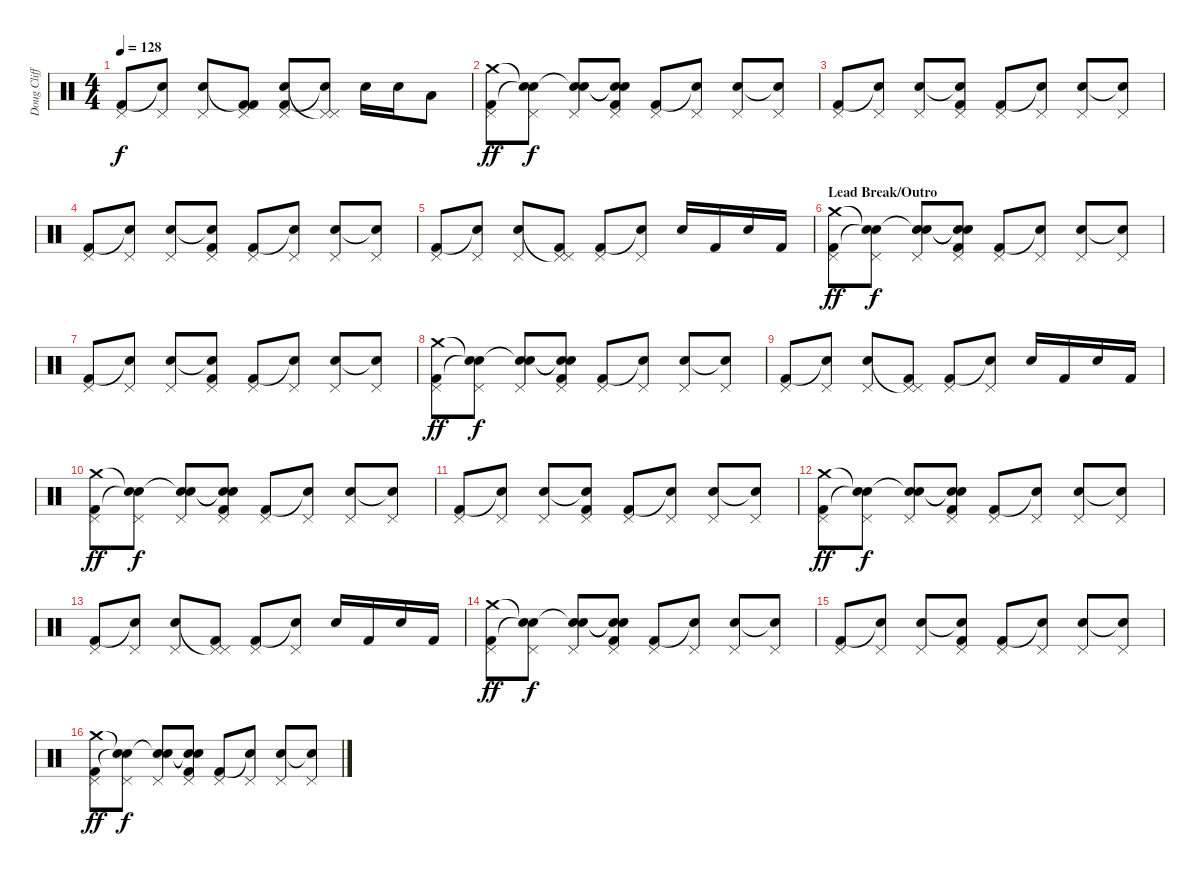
\track ("Doug Clifford" "Doug Cliff") {instrument percussion}
\staff {score}
\articulation defaults
\ts (4 4)
\tempo 128
\clef neutral
\ks c
("Pedal Hi-Hat (hit)" "Kick (hit) 2").8{dy f} ("Pedal Hi-Hat (hit)" "Snare (hit)"{t}).8 ("Pedal Hi-Hat (hit)" "Snare (hit) 2").8 ("Pedal Hi-Hat (hit)" "Kick (hit) 2"{t} "Kick (hit) 2").8 ("Pedal Hi-Hat (hit)" "Snare (hit) 2" "Kick (hit) 2").8 ("Pedal Hi-Hat (hit)" "Pedal Hi-Hat (hit)"{t} "Snare (hit)"{t}).8 "Snare (hit) 2".16 "Snare (hit) 2".16 "Low Tom (hit)".8 |
("Crash medium (hit)" "Pedal Hi-Hat (hit)" "Kick (hit) 2").8{dy ff} ("Snare (hit)"{t} "Pedal Hi-Hat (hit)" "Snare (hit)"{t}).8{dy f} ("Snare (hit)"{t} "Pedal Hi-Hat (hit)" "Snare (hit) 2").8 ("Snare (hit)"{t} "Pedal Hi-Hat (hit)" "Snare (hit)"{t} "Kick (hit) 2").8 ("Pedal Hi-Hat (hit)" "Kick (hit) 2").8 ("Pedal Hi-Hat (hit)" "Snare (hit)"{t}).8 ("Pedal Hi-Hat (hit)" "Snare (hit) 2").8 ("Pedal Hi-Hat (hit)" "Snare (hit)"{t}).8 |
("Pedal Hi-Hat (hit)" "Kick (hit) 2").8 ("Pedal Hi-Hat (hit)" "Snare (hit)"{t}).8 ("Pedal Hi-Hat (hit)" "Snare (hit) 2").8 ("Pedal Hi-Hat (hit)" "Snare (hit)"{t} "Kick (hit) 2").8 ("Pedal Hi-Hat (hit)" "Kick (hit) 2").8 ("Pedal Hi-Hat (hit)" "Snare (hit)"{t}).8 ("Pedal Hi-Hat (hit)" "Snare (hit) 2").8 ("Pedal Hi-Hat (hit)" "Snare (hit)"{t}).8 |
("Pedal Hi-Hat (hit)" "Kick (hit) 2").8 ("Pedal Hi-Hat (hit)" "Snare (hit)"{t}).8 ("Pedal Hi-Hat (hit)" "Snare (hit) 2").8 ("Pedal Hi-Hat (hit)" "Snare (hit)"{t} "Kick (hit) 2").8 ("Pedal Hi-Hat (hit)" "Kick (hit) 2").8 ("Pedal Hi-Hat (hit)" "Snare (hit)"{t}).8 ("Pedal Hi-Hat (hit)" "Snare (hit) 2").8 ("Pedal Hi-Hat (hit)" "Snare (hit)"{t}).8 |
("Pedal Hi-Hat (hit)" "Kick (hit) 2").8 ("Pedal Hi-Hat (hit)" "Snare (hit)"{t}).8 ("Pedal Hi-Hat (hit)" "Snare (hit) 2").8 ("Pedal Hi-Hat (hit)" "Pedal Hi-Hat (hit)"{t} "Kick (hit) 2").8 ("Pedal Hi-Hat (hit)" "Kick (hit) 2").8 ("Pedal Hi-Hat (hit)" "Snare (hit)"{t}).8 "Snare (hit) 2".16 "Kick (hit) 2".16 "Snare (hit) 2".16 "Kick (hit) 2".16 |
\section ("" "Lead Break/Outro")
("Crash medium (hit)" "Pedal Hi-Hat (hit)" "Kick (hit) 2").8{dy ff} ("Snare (hit)"{t} "Pedal Hi-Hat (hit)" "Snare (hit)"{t}).8{dy f} ("Snare (hit)"{t} "Pedal Hi-Hat (hit)" "Snare (hit) 2").8 ("Snare (hit)"{t} "Pedal Hi-Hat (hit)" "Snare (hit)"{t} "Kick (hit) 2").8 ("Pedal Hi-Hat (hit)" "Kick (hit) 2").8 ("Pedal Hi-Hat (hit)" "Snare (hit)"{t}).8 ("Pedal Hi-Hat (hit)" "Snare (hit) 2").8 ("Pedal Hi-Hat (hit)" "Snare (hit)"{t}).8 |
("Pedal Hi-Hat (hit)" "Kick (hit) 2").8 ("Pedal Hi-Hat (hit)" "Snare (hit)"{t}).8 ("Pedal Hi-Hat (hit)" "Snare (hit) 2").8 ("Pedal Hi-Hat (hit)" "Snare (hit)"{t} "Kick (hit) 2").8 ("Pedal Hi-Hat (hit)" "Kick (hit) 2").8 ("Pedal Hi-Hat (hit)" "Snare (hit)"{t}).8 ("Pedal Hi-Hat (hit)" "Snare (hit) 2").8 ("Pedal Hi-Hat (hit)" "Snare (hit)"{t}).8 |
("Crash medium (hit)" "Pedal Hi-Hat (hit)" "Kick (hit) 2").8{dy ff} ("Snare (hit)"{t} "Pedal Hi-Hat (hit)" "Snare (hit)"{t}).8{dy f} ("Snare (hit)"{t} "Pedal Hi-Hat (hit)" "Snare (hit) 2").8 ("Snare (hit)"{t} "Pedal Hi-Hat (hit)" "Snare (hit)"{t} "Kick (hit) 2").8 ("Pedal Hi-Hat (hit)" "Kick (hit) 2").8 ("Pedal Hi-Hat (hit)" "Snare (hit)"{t}).8 ("Pedal Hi-Hat (hit)" "Snare (hit) 2").8 ("Pedal Hi-Hat (hit)" "Snare (hit)"{t}).8 |
("Pedal Hi-Hat (hit)" "Kick (hit) 2").8 ("Pedal Hi-Hat (hit)" "Snare (hit)"{t}).8 ("Pedal Hi-Hat (hit)" "Snare (hit) 2").8 ("Pedal Hi-Hat (hit)" "Pedal Hi-Hat (hit)"{t} "Kick (hit) 2").8 ("Pedal Hi-Hat (hit)" "Kick (hit) 2").8 ("Pedal Hi-Hat (hit)" "Snare (hit)"{t}).8 "Snare (hit) 2".16 "Kick (hit) 2".16 "Snare (hit) 2".16 "Kick (hit) 2".16 |
("Crash medium (hit)" "Pedal Hi-Hat (hit)" "Kick (hit) 2").8{dy ff} ("Snare (hit)"{t} "Pedal Hi-Hat (hit)" "Snare (hit)"{t}).8{dy f} ("Snare (hit)"{t} "Pedal Hi-Hat (hit)" "Snare (hit) 2").8 ("Snare (hit)"{t} "Pedal Hi-Hat (hit)" "Snare (hit)"{t} "Kick (hit) 2").8 ("Pedal Hi-Hat (hit)" "Kick (hit) 2").8 ("Pedal Hi-Hat (hit)" "Snare (hit)"{t}).8 ("Pedal Hi-Hat (hit)" "Snare (hit) 2").8 ("Pedal Hi-Hat (hit)" "Snare (hit)"{t}).8 |
("Pedal Hi-Hat (hit)" "Kick (hit) 2").8 ("Pedal Hi-Hat (hit)" "Snare (hit)"{t}).8 ("Pedal Hi-Hat (hit)" "Snare (hit) 2").8 ("Pedal Hi-Hat (hit)" "Snare (hit)"{t} "Kick (hit) 2").8 ("Pedal Hi-Hat (hit)" "Kick (hit) 2").8 ("Pedal Hi-Hat (hit)" "Snare (hit)"{t}).8 ("Pedal Hi-Hat (hit)" "Snare (hit) 2").8 ("Pedal Hi-Hat (hit)" "Snare (hit)"{t}).8 |
("Crash medium (hit)" "Pedal Hi-Hat (hit)" "Kick (hit) 2").8{dy ff} ("Snare (hit)"{t} "Pedal Hi-Hat (hit)" "Snare (hit)"{t}).8{dy f} ("Snare (hit)"{t} "Pedal Hi-Hat (hit)" "Snare (hit) 2").8 ("Snare (hit)"{t} "Pedal Hi-Hat (hit)" "Snare (hit)"{t} "Kick (hit) 2").8 ("Pedal Hi-Hat (hit)" "Kick (hit) 2").8 ("Pedal Hi-Hat (hit)" "Snare (hit)"{t}).8 ("Pedal Hi-Hat (hit)" "Snare (hit) 2").8 ("Pedal Hi-Hat (hit)" "Snare (hit)"{t}).8 |
("Pedal Hi-Hat (hit)" "Kick (hit) 2").8 ("Pedal Hi-Hat (hit)" "Snare (hit)"{t}).8 ("Pedal Hi-Hat (hit)" "Snare (hit) 2").8 ("Pedal Hi-Hat (hit)" "Pedal Hi-Hat (hit)"{t} "Kick (hit) 2").8 ("Pedal Hi-Hat (hit)" "Kick (hit) 2").8 ("Pedal Hi-Hat (hit)" "Snare (hit)"{t}).8 "Snare (hit) 2".16 "Kick (hit) 2".16 "Snare (hit) 2".16 "Kick (hit) 2".16 |
("Crash medium (hit)" "Pedal Hi-Hat (hit)" "Kick (hit) 2").8{dy ff} ("Snare (hit)"{t} "Pedal Hi-Hat (hit)" "Snare (hit)"{t}).8{dy f} ("Snare (hit)"{t} "Pedal Hi-Hat (hit)" "Snare (hit) 2").8 ("Snare (hit)"{t} "Pedal Hi-Hat (hit)" "Snare (hit)"{t} "Kick (hit) 2").8 ("Pedal Hi-Hat (hit)" "Kick (hit) 2").8 ("Pedal Hi-Hat (hit)" "Snare (hit)"{t}).8 ("Pedal Hi-Hat (hit)" "Snare (hit) 2").8 ("Pedal Hi-Hat (hit)" "Snare (hit)"{t}).8 |
("Pedal Hi-Hat (hit)" "Kick (hit) 2").8 ("Pedal Hi-Hat (hit)" "Snare (hit)"{t}).8 ("Pedal Hi-Hat (hit)" "Snare (hit) 2").8 ("Pedal Hi-Hat (hit)" "Snare (hit)"{t} "Kick (hit) 2").8 ("Pedal Hi-Hat (hit)" "Kick (hit) 2").8 ("Pedal Hi-Hat (hit)" "Snare (hit)"{t}).8 ("Pedal Hi-Hat (hit)" "Snare (hit) 2").8 ("Pedal Hi-Hat (hit)" "Snare (hit)"{t}).8 |
("Crash medium (hit)" "Pedal Hi-Hat (hit)" "Kick (hit) 2").8{dy ff} ("Snare (hit)"{t} "Pedal Hi-Hat (hit)" "Snare (hit)"{t}).8{dy f} ("Snare (hit)"{t} "Pedal Hi-Hat (hit)" "Snare (hit) 2").8 ("Snare (hit)"{t} "Pedal Hi-Hat (hit)" "Snare (hit)"{t} "Kick (hit) 2").8 ("Pedal Hi-Hat (hit)" "Kick (hit) 2").8 ("Pedal Hi-Hat (hit)" "Snare (hit)"{t}).8 ("Pedal Hi-Hat (hit)" "Snare (hit) 2").8 ("Pedal Hi-Hat (hit)" "Snare (hit)"{t}).8
